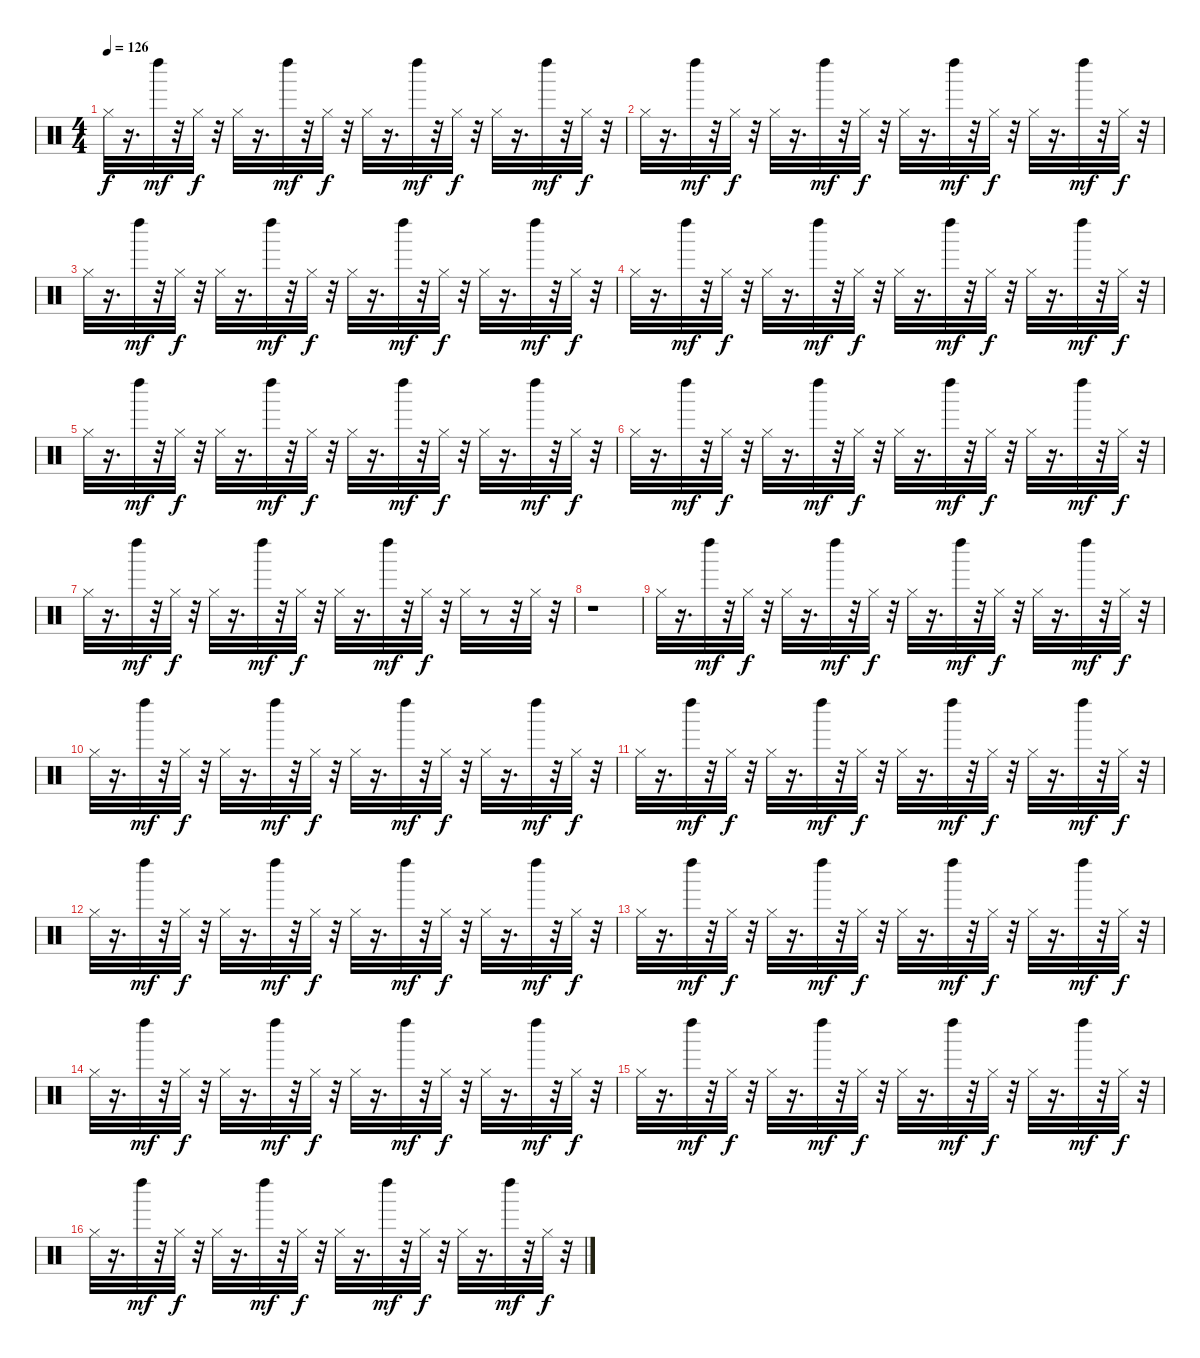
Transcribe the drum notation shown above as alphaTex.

\track "" {instrument percussion}
\staff {score}
\articulation defaults
\ts (4 4)
\tempo 126
\clef neutral
\ks c "Hi-Hat (closed)".32{dy f}
r.16{d} "Left Maraca (hit)".32{dy mf} r.32 "Hi-Hat (closed)".32{dy f} r.32 "Hi-Hat (closed)".32 r.16{d} "Left Maraca (hit)".32{dy mf} r.32 "Hi-Hat (closed)".32{dy f} r.32 "Hi-Hat (closed)".32 r.16{d} "Left Maraca (hit)".32{dy mf} r.32 "Hi-Hat (closed)".32{dy f} r.32 "Hi-Hat (closed)".32 r.16{d} "Left Maraca (hit)".32{dy mf} r.32 "Hi-Hat (closed)".32{dy f} r.32 |
"Hi-Hat (closed)".32 r.16{d} "Left Maraca (hit)".32{dy mf} r.32 "Hi-Hat (closed)".32{dy f} r.32 "Hi-Hat (closed)".32 r.16{d} "Left Maraca (hit)".32{dy mf} r.32 "Hi-Hat (closed)".32{dy f} r.32 "Hi-Hat (closed)".32 r.16{d} "Left Maraca (hit)".32{dy mf} r.32 "Hi-Hat (closed)".32{dy f} r.32 "Hi-Hat (closed)".32 r.16{d} "Left Maraca (hit)".32{dy mf} r.32 "Hi-Hat (closed)".32{dy f} r.32 |
"Hi-Hat (closed)".32 r.16{d} "Left Maraca (hit)".32{dy mf} r.32 "Hi-Hat (closed)".32{dy f} r.32 "Hi-Hat (closed)".32 r.16{d} "Left Maraca (hit)".32{dy mf} r.32 "Hi-Hat (closed)".32{dy f} r.32 "Hi-Hat (closed)".32 r.16{d} "Left Maraca (hit)".32{dy mf} r.32 "Hi-Hat (closed)".32{dy f} r.32 "Hi-Hat (closed)".32 r.16{d} "Left Maraca (hit)".32{dy mf} r.32 "Hi-Hat (closed)".32{dy f} r.32 |
"Hi-Hat (closed)".32 r.16{d} "Left Maraca (hit)".32{dy mf} r.32 "Hi-Hat (closed)".32{dy f} r.32 "Hi-Hat (closed)".32 r.16{d} "Left Maraca (hit)".32{dy mf} r.32 "Hi-Hat (closed)".32{dy f} r.32 "Hi-Hat (closed)".32 r.16{d} "Left Maraca (hit)".32{dy mf} r.32 "Hi-Hat (closed)".32{dy f} r.32 "Hi-Hat (closed)".32 r.16{d} "Left Maraca (hit)".32{dy mf} r.32 "Hi-Hat (closed)".32{dy f} r.32 |
"Hi-Hat (closed)".32 r.16{d} "Left Maraca (hit)".32{dy mf} r.32 "Hi-Hat (closed)".32{dy f} r.32 "Hi-Hat (closed)".32 r.16{d} "Left Maraca (hit)".32{dy mf} r.32 "Hi-Hat (closed)".32{dy f} r.32 "Hi-Hat (closed)".32 r.16{d} "Left Maraca (hit)".32{dy mf} r.32 "Hi-Hat (closed)".32{dy f} r.32 "Hi-Hat (closed)".32 r.16{d} "Left Maraca (hit)".32{dy mf} r.32 "Hi-Hat (closed)".32{dy f} r.32 |
"Hi-Hat (closed)".32 r.16{d} "Left Maraca (hit)".32{dy mf} r.32 "Hi-Hat (closed)".32{dy f} r.32 "Hi-Hat (closed)".32 r.16{d} "Left Maraca (hit)".32{dy mf} r.32 "Hi-Hat (closed)".32{dy f} r.32 "Hi-Hat (closed)".32 r.16{d} "Left Maraca (hit)".32{dy mf} r.32 "Hi-Hat (closed)".32{dy f} r.32 "Hi-Hat (closed)".32 r.16{d} "Left Maraca (hit)".32{dy mf} r.32 "Hi-Hat (closed)".32{dy f} r.32 |
"Hi-Hat (closed)".32 r.16{d} "Left Maraca (hit)".32{dy mf} r.32 "Hi-Hat (closed)".32{dy f} r.32 "Hi-Hat (closed)".32 r.16{d} "Left Maraca (hit)".32{dy mf} r.32 "Hi-Hat (closed)".32{dy f} r.32 "Hi-Hat (closed)".32 r.16{d} "Left Maraca (hit)".32{dy mf} r.32 "Hi-Hat (closed)".32{dy f} r.32 "Hi-Hat (closed)".32 r.8 r.32 "Hi-Hat (closed)".32 r.32 |
r.1 |
"Hi-Hat (closed)".32 r.16{d} "Left Maraca (hit)".32{dy mf} r.32 "Hi-Hat (closed)".32{dy f} r.32 "Hi-Hat (closed)".32 r.16{d} "Left Maraca (hit)".32{dy mf} r.32 "Hi-Hat (closed)".32{dy f} r.32 "Hi-Hat (closed)".32 r.16{d} "Left Maraca (hit)".32{dy mf} r.32 "Hi-Hat (closed)".32{dy f} r.32 "Hi-Hat (closed)".32 r.16{d} "Left Maraca (hit)".32{dy mf} r.32 "Hi-Hat (closed)".32{dy f} r.32 |
"Hi-Hat (closed)".32 r.16{d} "Left Maraca (hit)".32{dy mf} r.32 "Hi-Hat (closed)".32{dy f} r.32 "Hi-Hat (closed)".32 r.16{d} "Left Maraca (hit)".32{dy mf} r.32 "Hi-Hat (closed)".32{dy f} r.32 "Hi-Hat (closed)".32 r.16{d} "Left Maraca (hit)".32{dy mf} r.32 "Hi-Hat (closed)".32{dy f} r.32 "Hi-Hat (closed)".32 r.16{d} "Left Maraca (hit)".32{dy mf} r.32 "Hi-Hat (closed)".32{dy f} r.32 |
"Hi-Hat (closed)".32 r.16{d} "Left Maraca (hit)".32{dy mf} r.32 "Hi-Hat (closed)".32{dy f} r.32 "Hi-Hat (closed)".32 r.16{d} "Left Maraca (hit)".32{dy mf} r.32 "Hi-Hat (closed)".32{dy f} r.32 "Hi-Hat (closed)".32 r.16{d} "Left Maraca (hit)".32{dy mf} r.32 "Hi-Hat (closed)".32{dy f} r.32 "Hi-Hat (closed)".32 r.16{d} "Left Maraca (hit)".32{dy mf} r.32 "Hi-Hat (closed)".32{dy f} r.32 |
"Hi-Hat (closed)".32 r.16{d} "Left Maraca (hit)".32{dy mf} r.32 "Hi-Hat (closed)".32{dy f} r.32 "Hi-Hat (closed)".32 r.16{d} "Left Maraca (hit)".32{dy mf} r.32 "Hi-Hat (closed)".32{dy f} r.32 "Hi-Hat (closed)".32 r.16{d} "Left Maraca (hit)".32{dy mf} r.32 "Hi-Hat (closed)".32{dy f} r.32 "Hi-Hat (closed)".32 r.16{d} "Left Maraca (hit)".32{dy mf} r.32 "Hi-Hat (closed)".32{dy f} r.32 |
"Hi-Hat (closed)".32 r.16{d} "Left Maraca (hit)".32{dy mf} r.32 "Hi-Hat (closed)".32{dy f} r.32 "Hi-Hat (closed)".32 r.16{d} "Left Maraca (hit)".32{dy mf} r.32 "Hi-Hat (closed)".32{dy f} r.32 "Hi-Hat (closed)".32 r.16{d} "Left Maraca (hit)".32{dy mf} r.32 "Hi-Hat (closed)".32{dy f} r.32 "Hi-Hat (closed)".32 r.16{d} "Left Maraca (hit)".32{dy mf} r.32 "Hi-Hat (closed)".32{dy f} r.32 |
"Hi-Hat (closed)".32 r.16{d} "Left Maraca (hit)".32{dy mf} r.32 "Hi-Hat (closed)".32{dy f} r.32 "Hi-Hat (closed)".32 r.16{d} "Left Maraca (hit)".32{dy mf} r.32 "Hi-Hat (closed)".32{dy f} r.32 "Hi-Hat (closed)".32 r.16{d} "Left Maraca (hit)".32{dy mf} r.32 "Hi-Hat (closed)".32{dy f} r.32 "Hi-Hat (closed)".32 r.16{d} "Left Maraca (hit)".32{dy mf} r.32 "Hi-Hat (closed)".32{dy f} r.32 |
"Hi-Hat (closed)".32 r.16{d} "Left Maraca (hit)".32{dy mf} r.32 "Hi-Hat (closed)".32{dy f} r.32 "Hi-Hat (closed)".32 r.16{d} "Left Maraca (hit)".32{dy mf} r.32 "Hi-Hat (closed)".32{dy f} r.32 "Hi-Hat (closed)".32 r.16{d} "Left Maraca (hit)".32{dy mf} r.32 "Hi-Hat (closed)".32{dy f} r.32 "Hi-Hat (closed)".32 r.16{d} "Left Maraca (hit)".32{dy mf} r.32 "Hi-Hat (closed)".32{dy f} r.32 |
"Hi-Hat (closed)".32 r.16{d} "Left Maraca (hit)".32{dy mf} r.32 "Hi-Hat (closed)".32{dy f} r.32 "Hi-Hat (closed)".32 r.16{d} "Left Maraca (hit)".32{dy mf} r.32 "Hi-Hat (closed)".32{dy f} r.32 "Hi-Hat (closed)".32 r.16{d} "Left Maraca (hit)".32{dy mf} r.32 "Hi-Hat (closed)".32{dy f} r.32 "Hi-Hat (closed)".32 r.16{d} "Left Maraca (hit)".32{dy mf} r.32 "Hi-Hat (closed)".32{dy f} r.32
